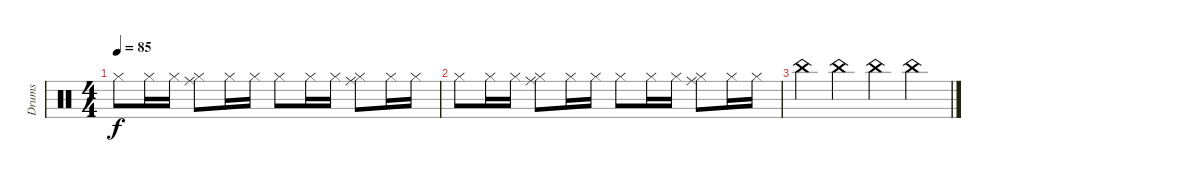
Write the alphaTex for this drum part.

\track ("Drums" "Drums") {instrument percussion}
\staff {score}
\articulation defaults
\ts (4 4)
\tempo 85
\clef neutral
\ks c "Hi-Hat (closed)".8{dy f volume 11} "Hi-Hat (closed)".16 "Hi-Hat (closed)".16
("Hi-Hat (closed)" "Ride (middle)").8 "Hi-Hat (closed)".16 "Hi-Hat (closed)".16 "Hi-Hat (closed)".8 "Hi-Hat (closed)".16 "Hi-Hat (closed)".16 ("Hi-Hat (closed)" "Ride (middle)").8 "Hi-Hat (closed)".16 "Hi-Hat (closed)".16 |
"Hi-Hat (closed)".8{volume 11} "Hi-Hat (closed)".16 "Hi-Hat (closed)".16 ("Hi-Hat (closed)" "Ride (middle)").8 "Hi-Hat (closed)".16 "Hi-Hat (closed)".16 "Hi-Hat (closed)".8 "Hi-Hat (closed)".16 "Hi-Hat (closed)".16 ("Hi-Hat (closed)" "Ride (middle)").8 "Hi-Hat (closed)".16 "Hi-Hat (closed)".16 |
"China (hit)".4{volume 0} "China (hit)".4 "China (hit)".4 "China (hit)".4
